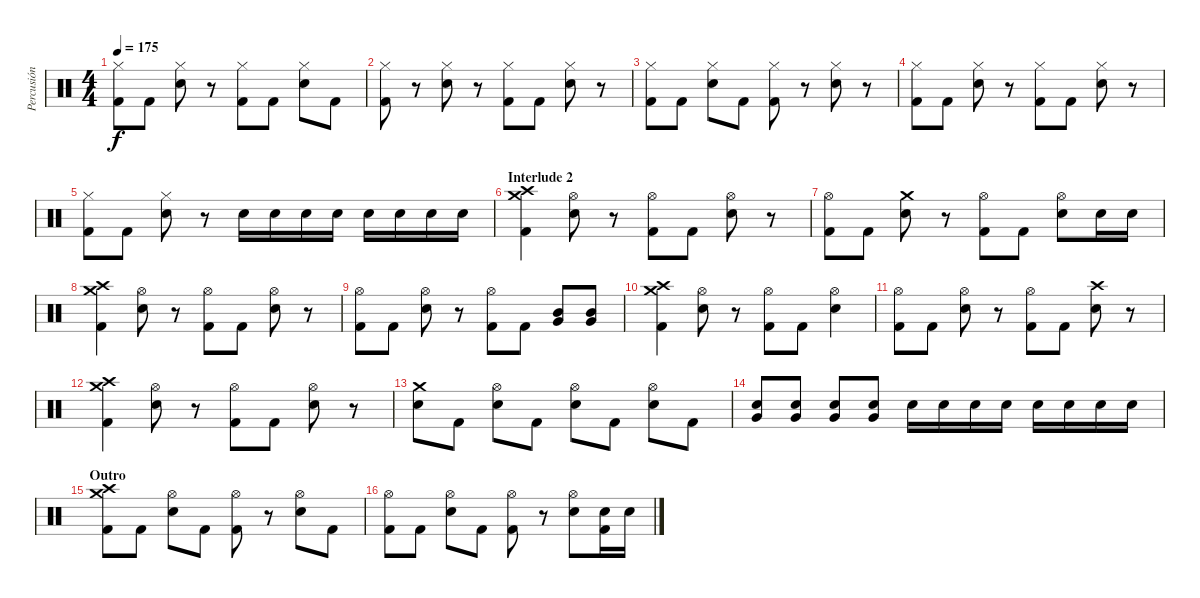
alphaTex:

\track ("Percusión" "Percusión") {instrument percussion}
\staff {score}
\articulation defaults
\ts (4 4)
\tempo 175
\clef neutral
\ks c
("Hi-Hat (closed)" "Kick (hit) 2").8{dy f} "Kick (hit) 2".8 ("Hi-Hat (closed)" "Electric Snare (hit)").8 r.8 ("Hi-Hat (closed)" "Kick (hit) 2").8 "Kick (hit) 2".8 ("Hi-Hat (closed)" "Electric Snare (hit)").8 "Kick (hit) 2".8 |
("Hi-Hat (closed)" "Kick (hit) 2").8 r.8 ("Hi-Hat (closed)" "Electric Snare (hit)").8 r.8 ("Hi-Hat (closed)" "Kick (hit) 2").8 "Kick (hit) 2".8 ("Hi-Hat (closed)" "Electric Snare (hit)").8 r.8 |
("Hi-Hat (closed)" "Kick (hit) 2").8 "Kick (hit) 2".8 ("Hi-Hat (closed)" "Electric Snare (hit)").8 "Kick (hit) 2".8 ("Hi-Hat (closed)" "Kick (hit) 2").8 r.8 ("Hi-Hat (closed)" "Electric Snare (hit)").8 r.8 |
("Hi-Hat (closed)" "Kick (hit) 2").8 "Kick (hit) 2".8 ("Hi-Hat (closed)" "Electric Snare (hit)").8 r.8 ("Hi-Hat (closed)" "Kick (hit) 2").8 "Kick (hit) 2".8 ("Hi-Hat (closed)" "Electric Snare (hit)").8 r.8 |
("Hi-Hat (closed)" "Kick (hit) 2").8 "Kick (hit) 2".8 ("Hi-Hat (closed)" "Electric Snare (hit)").8 r.8 "Electric Snare (hit)".16{volume 16} "Electric Snare (hit)".16 "Electric Snare (hit)".16 "Electric Snare (hit)".16 "Electric Snare (hit)".16 "Electric Snare (hit)".16 "Electric Snare (hit)".16 "Electric Snare (hit)".16 |
\section ("" "Interlude 2")
("Crash high (hit)" "Crash medium (hit)" "Kick (hit) 2").4 ("Hi-Hat (open)" "Electric Snare (hit)").8 r.8 ("Hi-Hat (open)" "Kick (hit) 2").8 "Kick (hit) 2".8 ("Hi-Hat (open)" "Electric Snare (hit)").8 r.8 |
("Hi-Hat (open)" "Kick (hit) 2").8 "Kick (hit) 2".8 ("Crash medium (hit)" "Electric Snare (hit)").8 r.8 ("Hi-Hat (open)" "Kick (hit) 2").8 "Kick (hit) 2".8 ("Hi-Hat (open)" "Electric Snare (hit)").8 "Electric Snare (hit)".16 "Electric Snare (hit)".16 |
("Crash high (hit)" "Crash medium (hit)" "Kick (hit) 2").4 ("Hi-Hat (open)" "Electric Snare (hit)").8 r.8 ("Hi-Hat (open)" "Kick (hit) 2").8 "Kick (hit) 2".8 ("Hi-Hat (open)" "Electric Snare (hit)").8 r.8 |
("Hi-Hat (open)" "Kick (hit) 2").8 "Kick (hit) 2".8 ("Hi-Hat (open)" "Electric Snare (hit)").8 r.8 ("Hi-Hat (open)" "Kick (hit) 2").8 "Kick (hit) 2".8 ("Mid Tom (hit)" "Very Low Tom (hit)").8 ("Mid Tom (hit)" "Very Low Tom (hit)").8 |
("Crash high (hit)" "Crash medium (hit)" "Kick (hit) 2").4 ("Hi-Hat (open)" "Electric Snare (hit)").8 r.8 ("Hi-Hat (open)" "Kick (hit) 2").8 "Kick (hit) 2".8 ("Hi-Hat (open)" "Electric Snare (hit)").4 |
("Hi-Hat (open)" "Kick (hit) 2").8 "Kick (hit) 2".8 ("Hi-Hat (open)" "Electric Snare (hit)").8 r.8 ("Hi-Hat (open)" "Kick (hit) 2").8 "Kick (hit) 2".8 ("Crash high (hit)" "Electric Snare (hit)").8 r.8 |
("Crash high (hit)" "Crash medium (hit)" "Kick (hit) 2").4 ("Hi-Hat (open)" "Electric Snare (hit)").8 r.8 ("Hi-Hat (open)" "Kick (hit) 2").8 "Kick (hit) 2".8 ("Hi-Hat (open)" "Electric Snare (hit)").8 r.8 |
("Crash medium (hit)" "Electric Snare (hit)").8 "Kick (hit) 2".8 ("Hi-Hat (open)" "Electric Snare (hit)").8 "Kick (hit) 2".8 ("Hi-Hat (open)" "Electric Snare (hit)").8 "Kick (hit) 2".8 ("Hi-Hat (open)" "Electric Snare (hit)").8 "Kick (hit) 2".8 |
("Very Low Tom (hit)" "Electric Snare (hit)").8 ("Very Low Tom (hit)" "Electric Snare (hit)").8 ("Very Low Tom (hit)" "Electric Snare (hit)").8 ("Very Low Tom (hit)" "Electric Snare (hit)").8 "Electric Snare (hit)".16 "Electric Snare (hit)".16 "Electric Snare (hit)".16 "Electric Snare (hit)".16 "Electric Snare (hit)".16 "Electric Snare (hit)".16 "Electric Snare (hit)".16 "Electric Snare (hit)".16 |
\section ("" "Outro")
("Crash medium (hit)" "Crash high (hit)" "Kick (hit) 2").8 "Kick (hit) 2".8 ("Hi-Hat (open)" "Electric Snare (hit)").8 "Kick (hit) 2".8 ("Hi-Hat (open)" "Kick (hit) 2").8 r.8 ("Hi-Hat (open)" "Electric Snare (hit)").8 "Kick (hit) 2".8 |
("Hi-Hat (open)" "Kick (hit) 2").8 "Kick (hit) 2".8 ("Hi-Hat (open)" "Electric Snare (hit)").8 "Kick (hit) 2".8 ("Hi-Hat (open)" "Kick (hit) 2").8 r.8 ("Hi-Hat (open)" "Electric Snare (hit)").8 ("Electric Snare (hit)" "Kick (hit) 2").16 "Electric Snare (hit)".16
